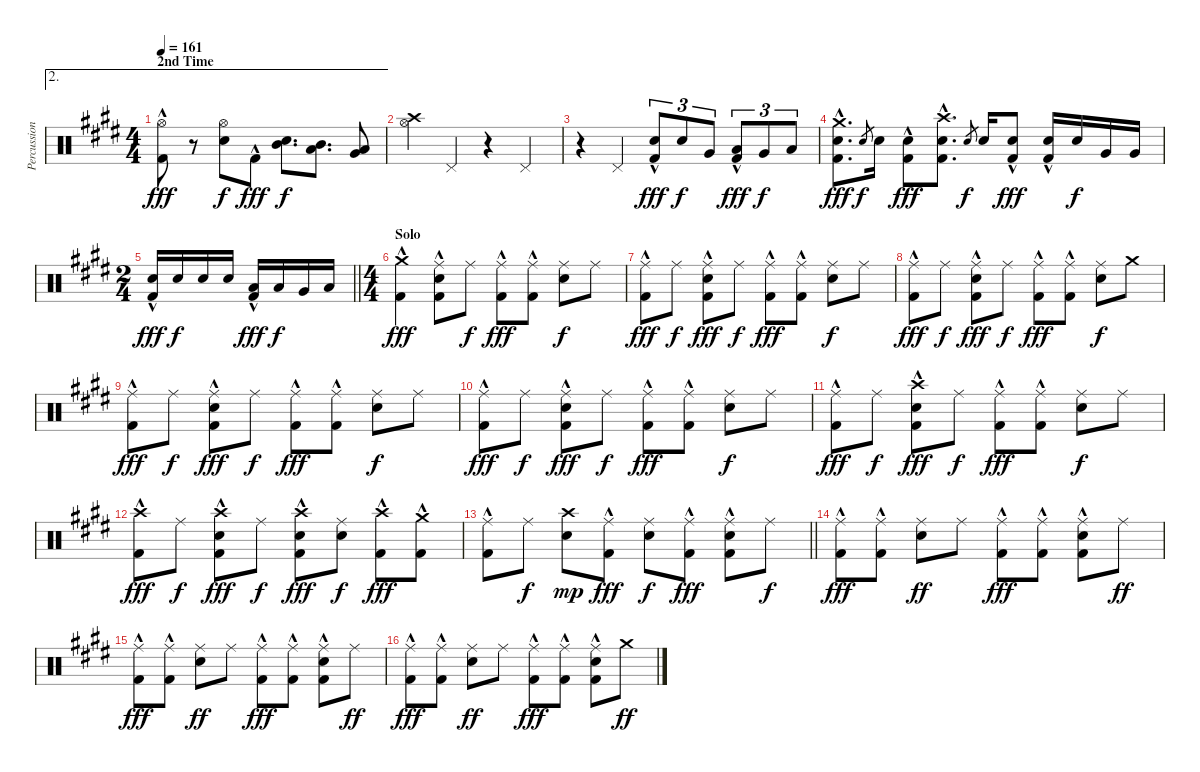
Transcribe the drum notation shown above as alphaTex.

\track ("Percussion" "Percussion") {instrument percussion}
\staff
\articulation defaults
\ae 2
\ts (4 4)
\section ("" "2nd Time")
\tempo 161
\clef neutral
\ks e
("Hi-Hat (open)" "Kick (hit) 2"{hac}).8{dy fff} r.8 ("Hi-Hat (open)" "Snare (hit) 2").8{dy f} "Kick (hit) 2"{hac}.8{dy fff} ("Snare (hit) 2" "Mid Tom (hit)").8{d dy f} ("Mid Tom (hit)" "Low Tom (hit)").8{d} ("Low Tom (hit)" "Very Low Tom (hit)").8 |
("Crash high (hit)" "Hi-Hat (open)").4 "Pedal Hi-Hat (hit)".4 r.4 "Pedal Hi-Hat (hit)".4 |
r.4 "Pedal Hi-Hat (hit)".4 ("Snare (hit) 2" "Kick (hit) 2"{hac}).8{tu (3 2) dy fff} "Snare (hit) 2".8{tu (3 2) dy f} "Very Low Tom (hit)".8{tu (3 2)} ("Low Tom (hit)" "Kick (hit) 2"{hac}).8{tu (3 2) dy fff} "Very Low Tom (hit)".8{tu (3 2) dy f} "Low Floor Tom (hit)".8{tu (3 2)} |
("Crash medium (hit)" "Snare (hit) 2" "Kick (hit) 2"{hac}).8{d dy fff} "Snare (hit) 2".8{gr dy f} "Snare (hit) 2".16 ("Snare (hit) 2" "Kick (hit) 2"{hac}).8{dy fff} ("Crash high (hit)" "Snare (hit) 2" "Kick (hit) 2"{hac}).8{d} "Snare (hit) 2".8{gr dy f} "Snare (hit) 2".16 ("Snare (hit) 2" "Kick (hit) 2"{hac}).8{dy fff} ("Snare (hit) 2" "Kick (hit) 2"{hac}).16 "Snare (hit) 2".16{dy f} "Very Low Tom (hit)".16 "Very Low Tom (hit)".16 |
\ts (2 4)
\barLineRight lightlight
("Snare (hit) 2" "Kick (hit) 2"{hac}).16{dy fff} "Snare (hit) 2".16{dy f} "Snare (hit) 2".16 "Snare (hit) 2".16 ("Low Tom (hit)" "Kick (hit) 2"{hac}).16{dy fff} "Low Tom (hit)".16{dy f} "Very Low Tom (hit)".16 "Low Floor Tom (hit)".16 |
\ts (4 4)
\section ("" "Solo")
("Crash medium (hit)" "Kick (hit) 2"{hac}).4{dy fff} ("Ride (middle)" "Snare (hit) 2" "Kick (hit) 2"{hac}).8 "Ride (middle)".8{dy f} ("Ride (middle)" "Kick (hit) 2"{hac}).8{dy fff} ("Ride (middle)" "Kick (hit) 2"{hac}).8 ("Ride (middle)" "Snare (hit) 2").8{dy f} "Ride (middle)".8 |
("Ride (middle)" "Kick (hit) 2"{hac}).8{dy fff} "Ride (middle)".8{dy f} ("Ride (middle)" "Snare (hit) 2" "Kick (hit) 2"{hac}).8{dy fff} "Ride (middle)".8{dy f} ("Ride (middle)" "Kick (hit) 2"{hac}).8{dy fff} ("Ride (middle)" "Kick (hit) 2"{hac}).8 ("Ride (middle)" "Snare (hit) 2").8{dy f} "Ride (middle)".8 |
("Ride (middle)" "Kick (hit) 2"{hac}).8{dy fff} "Ride (middle)".8{dy f} ("Ride (middle)" "Snare (hit) 2" "Kick (hit) 2"{hac}).8{dy fff} "Ride (middle)".8{dy f} ("Ride (middle)" "Kick (hit) 2"{hac}).8{dy fff} ("Ride (middle)" "Kick (hit) 2"{hac}).8 ("Ride (middle)" "Snare (hit) 2").8{dy f} "Crash medium (hit)".8 |
("Ride (middle)" "Kick (hit) 2"{hac}).8{dy fff} "Ride (middle)".8{dy f} ("Ride (middle)" "Snare (hit) 2" "Kick (hit) 2"{hac}).8{dy fff} "Ride (middle)".8{dy f} ("Ride (middle)" "Kick (hit) 2"{hac}).8{dy fff} ("Ride (middle)" "Kick (hit) 2"{hac}).8 ("Ride (middle)" "Snare (hit) 2").8{dy f} "Ride (middle)".8 |
("Ride (middle)" "Kick (hit) 2"{hac}).8{dy fff} "Ride (middle)".8{dy f} ("Ride (middle)" "Snare (hit) 2" "Kick (hit) 2"{hac}).8{dy fff} "Ride (middle)".8{dy f} ("Ride (middle)" "Kick (hit) 2"{hac}).8{dy fff} ("Ride (middle)" "Kick (hit) 2"{hac}).8 ("Ride (middle)" "Snare (hit) 2").8{dy f} "Ride (middle)".8 |
("Ride (middle)" "Kick (hit) 2"{hac}).8{dy fff} "Ride (middle)".8{dy f} ("Crash high (hit)" "Snare (hit) 2" "Kick (hit) 2"{hac}).8{dy fff} "Ride (middle)".8{dy f} ("Ride (middle)" "Kick (hit) 2"{hac}).8{dy fff} ("Ride (middle)" "Kick (hit) 2"{hac}).8 ("Ride (middle)" "Snare (hit) 2").8{dy f} "Ride (middle)".8 |
("Crash high (hit)" "Kick (hit) 2"{hac}).8{dy fff} "Ride (middle)".8{dy f} ("Crash high (hit)" "Snare (hit) 2" "Kick (hit) 2"{hac}).8{dy fff} "Ride (middle)".8{dy f} ("Crash high (hit)" "Snare (hit) 2" "Kick (hit) 2"{hac}).8{dy fff} ("Ride (middle)" "Snare (hit) 2").8{dy f} ("Crash high (hit)" "Kick (hit) 2"{hac}).8{dy fff} ("Crash medium (hit)" "Kick (hit) 2"{hac}).8 |
\barLineRight lightlight
("Ride (middle)" "Kick (hit) 2"{hac}).8 "Ride (middle)".8{dy f} ("Crash high (hit)" "Snare (hit) 2").8{dy mp} ("Ride (middle)" "Kick (hit) 2"{hac}).8{dy fff} ("Ride (middle)" "Snare (hit) 2").8{dy f} ("Ride (middle)" "Kick (hit) 2"{hac}).8{dy fff} ("Ride (middle)" "Snare (hit) 2" "Kick (hit) 2"{hac}).8 "Ride (middle)".8{dy f} |
("Ride (middle)" "Kick (hit) 2"{hac}).8{dy fff} ("Ride (middle)" "Kick (hit) 2"{hac}).8 ("Ride (middle)" "Snare (hit) 2").8{dy ff} "Ride (middle)".8 ("Ride (middle)" "Kick (hit) 2"{hac}).8{dy fff} ("Ride (middle)" "Kick (hit) 2"{hac}).8 ("Ride (middle)" "Snare (hit) 2" "Kick (hit) 2"{hac}).8 "Ride (middle)".8{dy ff} |
("Ride (middle)" "Kick (hit) 2"{hac}).8{dy fff} ("Ride (middle)" "Kick (hit) 2"{hac}).8 ("Ride (middle)" "Snare (hit) 2").8{dy ff} "Ride (middle)".8 ("Ride (middle)" "Kick (hit) 2"{hac}).8{dy fff} ("Ride (middle)" "Kick (hit) 2"{hac}).8 ("Ride (middle)" "Snare (hit) 2" "Kick (hit) 2"{hac}).8 "Ride (middle)".8{dy ff} |
("Ride (middle)" "Kick (hit) 2"{hac}).8{dy fff} ("Ride (middle)" "Kick (hit) 2"{hac}).8 ("Ride (middle)" "Snare (hit) 2").8{dy ff} "Ride (middle)".8 ("Ride (middle)" "Kick (hit) 2"{hac}).8{dy fff} ("Ride (middle)" "Kick (hit) 2"{hac}).8 ("Ride (middle)" "Snare (hit) 2" "Kick (hit) 2"{hac}).8 "Crash medium (hit)".8{dy ff}
